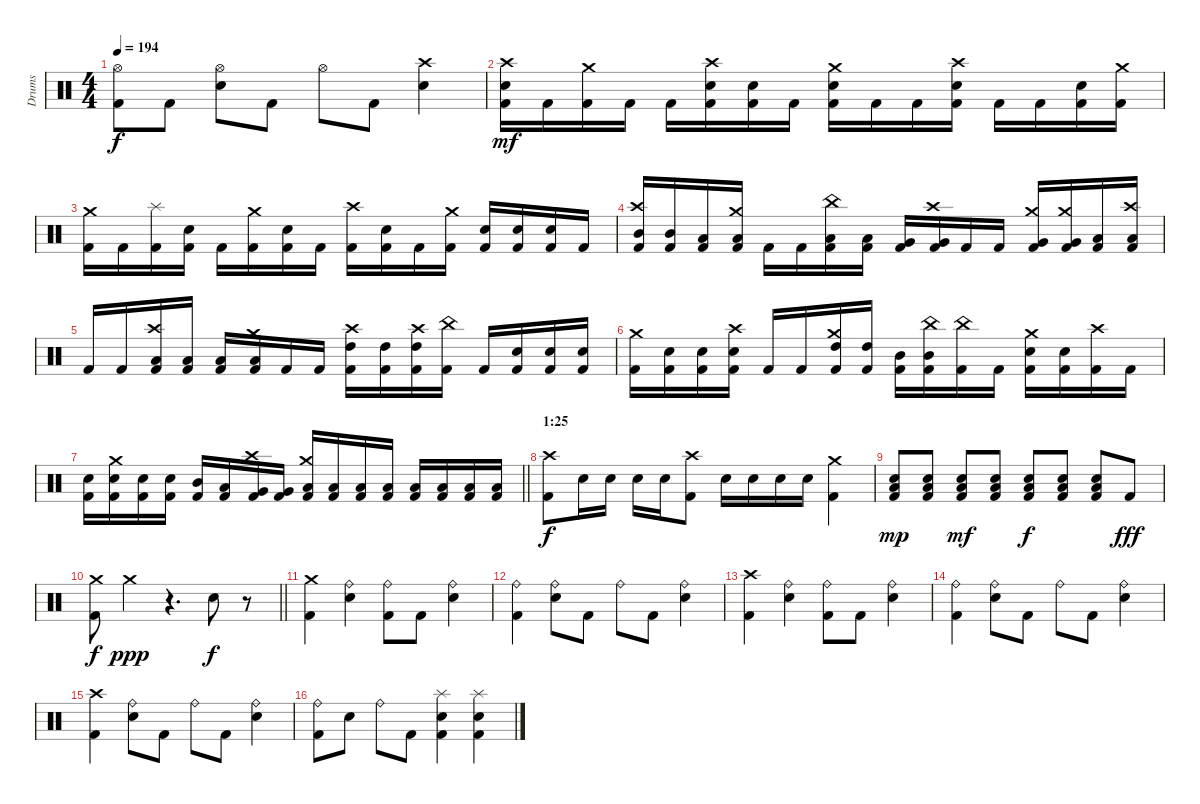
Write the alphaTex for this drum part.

\track ("Drums" "Drums") {instrument percussion}
\staff {score}
\articulation defaults
\ts (4 4)
\tempo 194
\clef neutral
\ks c
("Hi-Hat (open)" "Kick (hit) 2").8{dy f} "Kick (hit) 2".8 ("Hi-Hat (open)" "Snare (hit) 2").8 "Kick (hit) 2".8 "Hi-Hat (open)".8 "Kick (hit) 2".8 ("Crash high (hit)" "Snare (hit) 2").4 |
("Crash high (hit)" "Snare (hit) 2" "Kick (hit) 2").16{dy mf} "Kick (hit) 2".16 ("Crash medium (hit)" "Kick (hit) 2").16 "Kick (hit) 2".16 "Kick (hit) 2".16 ("Crash high (hit)" "Snare (hit) 2" "Kick (hit) 2").16 ("Snare (hit) 2" "Kick (hit) 2").16 "Kick (hit) 2".16 ("Crash medium (hit)" "Snare (hit) 2" "Kick (hit) 2").16 "Kick (hit) 2".16 "Kick (hit) 2".16 ("Crash high (hit)" "Snare (hit) 2" "Kick (hit) 2").16 "Kick (hit) 2".16 "Kick (hit) 2".16 ("Snare (hit) 2" "Kick (hit) 2").16 ("Crash medium (hit)" "Kick (hit) 2").16 |
("Crash medium (hit)" "Kick (hit) 2").16 "Kick (hit) 2".16 ("Splash (hit)" "Kick (hit) 2").16 ("Snare (hit) 2" "Kick (hit) 2").16 "Kick (hit) 2".16 ("Crash medium (hit)" "Kick (hit) 2").16 ("Snare (hit) 2" "Kick (hit) 2").16 "Kick (hit) 2".16 ("Crash high (hit)" "Kick (hit) 2").16 ("Snare (hit) 2" "Kick (hit) 2").16 "Kick (hit) 2".16 ("Crash medium (hit)" "Kick (hit) 2").16 ("Snare (hit) 2" "Kick (hit) 2").16 ("Snare (hit) 2" "Kick (hit) 2").16 ("Snare (hit) 2" "Kick (hit) 2").16 "Kick (hit) 2".16 |
("Crash high (hit)" "Mid Tom (hit)" "Kick (hit) 2").16 ("Mid Tom (hit)" "Kick (hit) 2").16 ("Low Tom (hit)" "Kick (hit) 2").16 ("Crash medium (hit)" "Low Tom (hit)" "Kick (hit) 2").16 "Kick (hit) 2".16 "Kick (hit) 2".16 ("China (hit)" "Low Tom (hit)" "Kick (hit) 2").16 ("Low Tom (hit)" "Kick (hit) 2").16 ("Very Low Tom (hit)" "Kick (hit) 2").16 ("Crash high (hit)" "Very Low Tom (hit)" "Kick (hit) 2").16 "Kick (hit) 2".16 "Kick (hit) 2".16 ("Crash medium (hit)" "Very Low Tom (hit)" "Kick (hit) 2").16 ("Crash medium (hit)" "Very Low Tom (hit)" "Kick (hit) 2").16 ("Low Floor Tom (hit)" "Kick (hit) 2").16 ("Crash high (hit)" "Low Floor Tom (hit)" "Kick (hit) 2").16 |
"Kick (hit) 2".16 "Kick (hit) 2".16 ("Crash high (hit)" "Low Floor Tom (hit)" "Kick (hit) 2").16 ("Low Floor Tom (hit)" "Kick (hit) 2").16 ("Low Floor Tom (hit)" "Kick (hit) 2").16 ("Crash medium (hit)" "Low Floor Tom (hit)" "Kick (hit) 2").16 "Kick (hit) 2".16 "Kick (hit) 2".16 ("Crash high (hit)" "High Tom (hit)" "Kick (hit) 2").16 ("High Tom (hit)" "Kick (hit) 2").16 ("Crash high (hit)" "High Tom (hit)" "Kick (hit) 2").16 ("China (hit)" "Kick (hit) 2").16 "Kick (hit) 2".16 ("Snare (hit) 2" "Kick (hit) 2").16 ("Snare (hit) 2" "Kick (hit) 2").16 ("Snare (hit) 2" "Kick (hit) 2").16 |
("Crash medium (hit)" "Kick (hit) 2").16 ("Snare (hit) 2" "Kick (hit) 2").16 ("Snare (hit) 2" "Kick (hit) 2").16 ("Crash high (hit)" "Snare (hit) 2" "Kick (hit) 2").16 "Kick (hit) 2".16 "Kick (hit) 2".16 ("Crash medium (hit)" "High Tom (hit)" "Kick (hit) 2").16 ("High Tom (hit)" "Kick (hit) 2").16 ("Mid Tom (hit)" "Kick (hit) 2").16 ("China (hit)" "Mid Tom (hit)" "Kick (hit) 2").16 ("China (hit)" "Kick (hit) 2").16 "Kick (hit) 2".16 ("Crash medium (hit)" "Snare (hit) 2" "Kick (hit) 2").16 ("Snare (hit) 2" "Kick (hit) 2").16 ("Crash high (hit)" "Kick (hit) 2").16 "Kick (hit) 2".16 |
\barLineRight lightlight
("Snare (hit) 2" "Kick (hit) 2").16 ("Crash medium (hit)" "Snare (hit) 2" "Kick (hit) 2").16 ("Snare (hit) 2" "Kick (hit) 2").16 ("Snare (hit) 2" "Kick (hit) 2").16 ("Mid Tom (hit)" "Kick (hit) 2").16 ("Low Tom (hit)" "Kick (hit) 2").16 ("Crash high (hit)" "Very Low Tom (hit)" "Kick (hit) 2").16 ("Very Low Tom (hit)" "Kick (hit) 2").16 ("Crash medium (hit)" "Low Floor Tom (hit)" "Kick (hit) 2").16 ("Low Floor Tom (hit)" "Kick (hit) 2").16 ("Low Floor Tom (hit)" "Kick (hit) 2").16 ("Low Floor Tom (hit)" "Kick (hit) 2").16 ("Low Tom (hit)" "Kick (hit) 2").16 ("Low Tom (hit)" "Kick (hit) 2").16 ("Low Tom (hit)" "Kick (hit) 2").16 ("Low Tom (hit)" "Kick (hit) 2").16 |
\section ("" "1:25")
("Crash high (hit)" "Kick (hit) 2").8{dy f} "Snare (hit) 2".16 "Snare (hit) 2".16 "Snare (hit) 2".16 "Snare (hit) 2".16 ("Crash high (hit)" "Kick (hit) 2").8 "Snare (hit) 2".16 "Snare (hit) 2".16 "Snare (hit) 2".16 "Snare (hit) 2".16 ("Crash medium (hit)" "Kick (hit) 2").4 |
("Snare (hit) 2" "Low Tom (hit)" "Kick (hit) 2").8{dy mp} ("Snare (hit) 2" "Low Tom (hit)" "Kick (hit) 2").8 ("Snare (hit) 2" "Low Tom (hit)" "Kick (hit) 2").8{dy mf} ("Snare (hit) 2" "Low Tom (hit)" "Kick (hit) 2").8 ("Snare (hit) 2" "Low Tom (hit)" "Kick (hit) 2").8{dy f} ("Snare (hit) 2" "Low Tom (hit)" "Kick (hit) 2").8 ("Snare (hit) 2" "Low Tom (hit)" "Kick (hit) 2").8 "Kick (hit) 2".8{dy fff} |
\barLineRight lightlight
("Crash medium (hit)" "Kick (hit) 2").8{dy f} "Crash medium (hit)".4{dy ppp} r.4{d} "Snare (hit) 2".8{dy f} r.8 |
("Crash medium (hit)" "Kick (hit) 2").4 ("Ride (bell)" "Snare (hit) 2").4 ("Ride (bell)" "Kick (hit) 2").8 "Kick (hit) 2".8 ("Ride (bell)" "Snare (hit) 2").4 |
("Ride (bell)" "Kick (hit) 2").4 ("Ride (bell)" "Snare (hit) 2").8 "Kick (hit) 2".8 "Ride (bell)".8 "Kick (hit) 2".8 ("Ride (bell)" "Snare (hit) 2").4 |
("Crash high (hit)" "Kick (hit) 2").4 ("Ride (bell)" "Snare (hit) 2").4 ("Ride (bell)" "Kick (hit) 2").8 "Kick (hit) 2".8 ("Ride (bell)" "Snare (hit) 2").4 |
("Ride (bell)" "Kick (hit) 2").4 ("Ride (bell)" "Snare (hit) 2").8 "Kick (hit) 2".8 "Ride (bell)".8 "Kick (hit) 2".8 ("Ride (bell)" "Snare (hit) 2").4 |
("Crash high (hit)" "Kick (hit) 2").4 ("Ride (bell)" "Snare (hit) 2").8 "Kick (hit) 2".8 "Ride (bell)".8 "Kick (hit) 2".8 ("Ride (bell)" "Snare (hit) 2").4 |
("Ride (bell)" "Kick (hit) 2").8 "Snare (hit) 2".8 "Ride (bell)".8 "Kick (hit) 2".8 ("Splash (hit)" "Snare (hit) 2" "Kick (hit) 2").4 ("Splash (hit)" "Snare (hit) 2" "Kick (hit) 2").4
